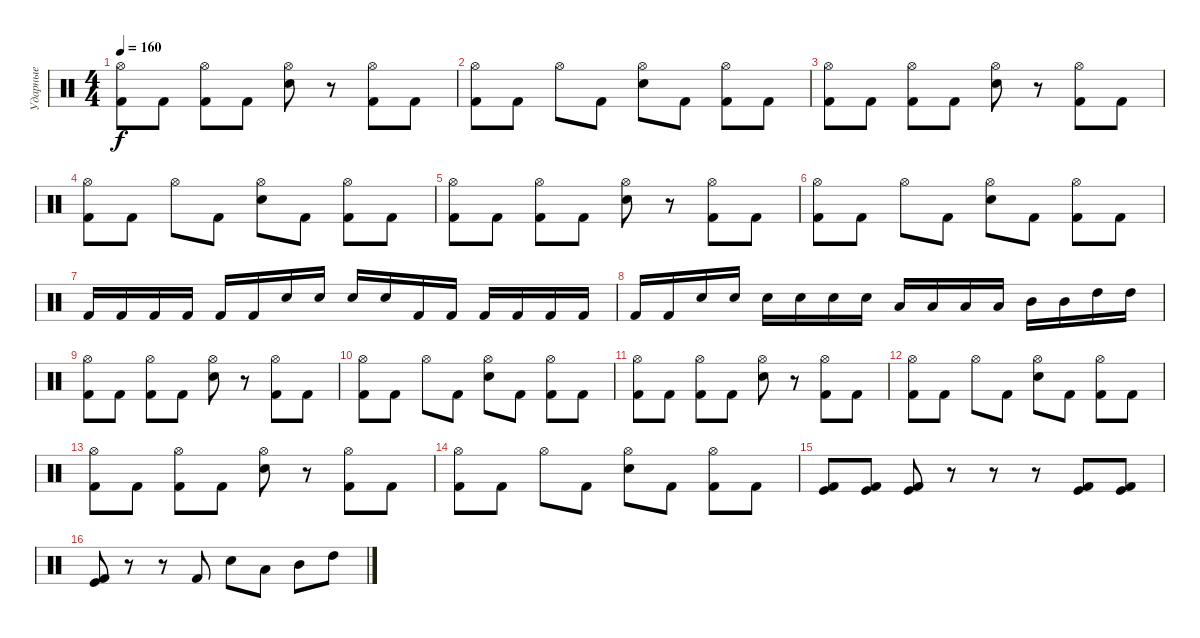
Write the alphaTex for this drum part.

\track ("Ударные" "Ударные") {instrument percussion}
\staff {score}
\articulation defaults
\ts (4 4)
\tempo 160
\clef neutral
\ks c
("Hi-Hat (open)" "Kick (hit) 2").8{dy f} "Kick (hit) 2".8 ("Hi-Hat (open)" "Kick (hit) 2").8 "Kick (hit) 2".8 ("Hi-Hat (open)" "Electric Snare (hit)").8 r.8 ("Hi-Hat (open)" "Kick (hit) 2").8 "Kick (hit) 2".8 |
("Hi-Hat (open)" "Kick (hit) 2").8 "Kick (hit) 2".8 "Hi-Hat (open)".8 "Kick (hit) 2".8 ("Hi-Hat (open)" "Electric Snare (hit)").8 "Kick (hit) 2".8 ("Hi-Hat (open)" "Kick (hit) 2").8 "Kick (hit) 2".8 |
("Hi-Hat (open)" "Kick (hit) 2").8 "Kick (hit) 2".8 ("Hi-Hat (open)" "Kick (hit) 2").8 "Kick (hit) 2".8 ("Hi-Hat (open)" "Electric Snare (hit)").8 r.8 ("Hi-Hat (open)" "Kick (hit) 2").8 "Kick (hit) 2".8 |
("Hi-Hat (open)" "Kick (hit) 2").8 "Kick (hit) 2".8 "Hi-Hat (open)".8 "Kick (hit) 2".8 ("Hi-Hat (open)" "Electric Snare (hit)").8 "Kick (hit) 2".8 ("Hi-Hat (open)" "Kick (hit) 2").8 "Kick (hit) 2".8 |
("Hi-Hat (open)" "Kick (hit) 2").8 "Kick (hit) 2".8 ("Hi-Hat (open)" "Kick (hit) 2").8 "Kick (hit) 2".8 ("Hi-Hat (open)" "Electric Snare (hit)").8 r.8 ("Hi-Hat (open)" "Kick (hit) 2").8 "Kick (hit) 2".8 |
("Hi-Hat (open)" "Kick (hit) 2").8 "Kick (hit) 2".8 "Hi-Hat (open)".8 "Kick (hit) 2".8 ("Hi-Hat (open)" "Electric Snare (hit)").8 "Kick (hit) 2".8 ("Hi-Hat (open)" "Kick (hit) 2").8 "Kick (hit) 2".8 |
"Kick (hit) 2".16 "Kick (hit) 2".16 "Kick (hit) 2".16 "Kick (hit) 2".16 "Kick (hit) 2".16 "Kick (hit) 2".16 "Electric Snare (hit)".16 "Electric Snare (hit)".16 "Electric Snare (hit)".16 "Electric Snare (hit)".16 "Kick (hit) 2".16 "Kick (hit) 2".16 "Kick (hit) 2".16 "Kick (hit) 2".16 "Kick (hit) 2".16 "Kick (hit) 2".16 |
"Kick (hit) 2".16 "Kick (hit) 2".16 "Electric Snare (hit)".16 "Electric Snare (hit)".16 "Electric Snare (hit)".16 "Electric Snare (hit)".16 "Electric Snare (hit)".16 "Electric Snare (hit)".16 "Low Tom (hit)".16 "Low Tom (hit)".16 "Low Tom (hit)".16 "Low Tom (hit)".16 "Mid Tom (hit)".16 "Mid Tom (hit)".16 "High Tom (hit)".16 "High Tom (hit)".16 |
("Hi-Hat (open)" "Kick (hit) 2").8 "Kick (hit) 2".8 ("Hi-Hat (open)" "Kick (hit) 2").8 "Kick (hit) 2".8 ("Hi-Hat (open)" "Electric Snare (hit)").8 r.8 ("Hi-Hat (open)" "Kick (hit) 2").8 "Kick (hit) 2".8 |
("Hi-Hat (open)" "Kick (hit) 2").8 "Kick (hit) 2".8 "Hi-Hat (open)".8 "Kick (hit) 2".8 ("Hi-Hat (open)" "Electric Snare (hit)").8 "Kick (hit) 2".8 ("Hi-Hat (open)" "Kick (hit) 2").8 "Kick (hit) 2".8 |
("Hi-Hat (open)" "Kick (hit) 2").8 "Kick (hit) 2".8 ("Hi-Hat (open)" "Kick (hit) 2").8 "Kick (hit) 2".8 ("Hi-Hat (open)" "Electric Snare (hit)").8 r.8 ("Hi-Hat (open)" "Kick (hit) 2").8 "Kick (hit) 2".8 |
("Hi-Hat (open)" "Kick (hit) 2").8 "Kick (hit) 2".8 "Hi-Hat (open)".8 "Kick (hit) 2".8 ("Hi-Hat (open)" "Electric Snare (hit)").8 "Kick (hit) 2".8 ("Hi-Hat (open)" "Kick (hit) 2").8 "Kick (hit) 2".8 |
("Hi-Hat (open)" "Kick (hit) 2").8 "Kick (hit) 2".8 ("Hi-Hat (open)" "Kick (hit) 2").8 "Kick (hit) 2".8 ("Hi-Hat (open)" "Electric Snare (hit)").8 r.8 ("Hi-Hat (open)" "Kick (hit) 2").8 "Kick (hit) 2".8 |
("Hi-Hat (open)" "Kick (hit) 2").8 "Kick (hit) 2".8 "Hi-Hat (open)".8 "Kick (hit) 2".8 ("Hi-Hat (open)" "Electric Snare (hit)").8 "Kick (hit) 2".8 ("Hi-Hat (open)" "Kick (hit) 2").8 "Kick (hit) 2".8 |
("Kick (hit) 2" "Kick (hit)").8 ("Kick (hit) 2" "Kick (hit)").8 ("Kick (hit) 2" "Kick (hit)").8 r.8 r.8 r.8 ("Kick (hit) 2" "Kick (hit)").8 ("Kick (hit) 2" "Kick (hit)").8 |
("Kick (hit) 2" "Kick (hit)").8 r.8 r.8 "Kick (hit) 2".8 "Electric Snare (hit)".8 "Low Tom (hit)".8 "Mid Tom (hit)".8 "High Tom (hit)".8
